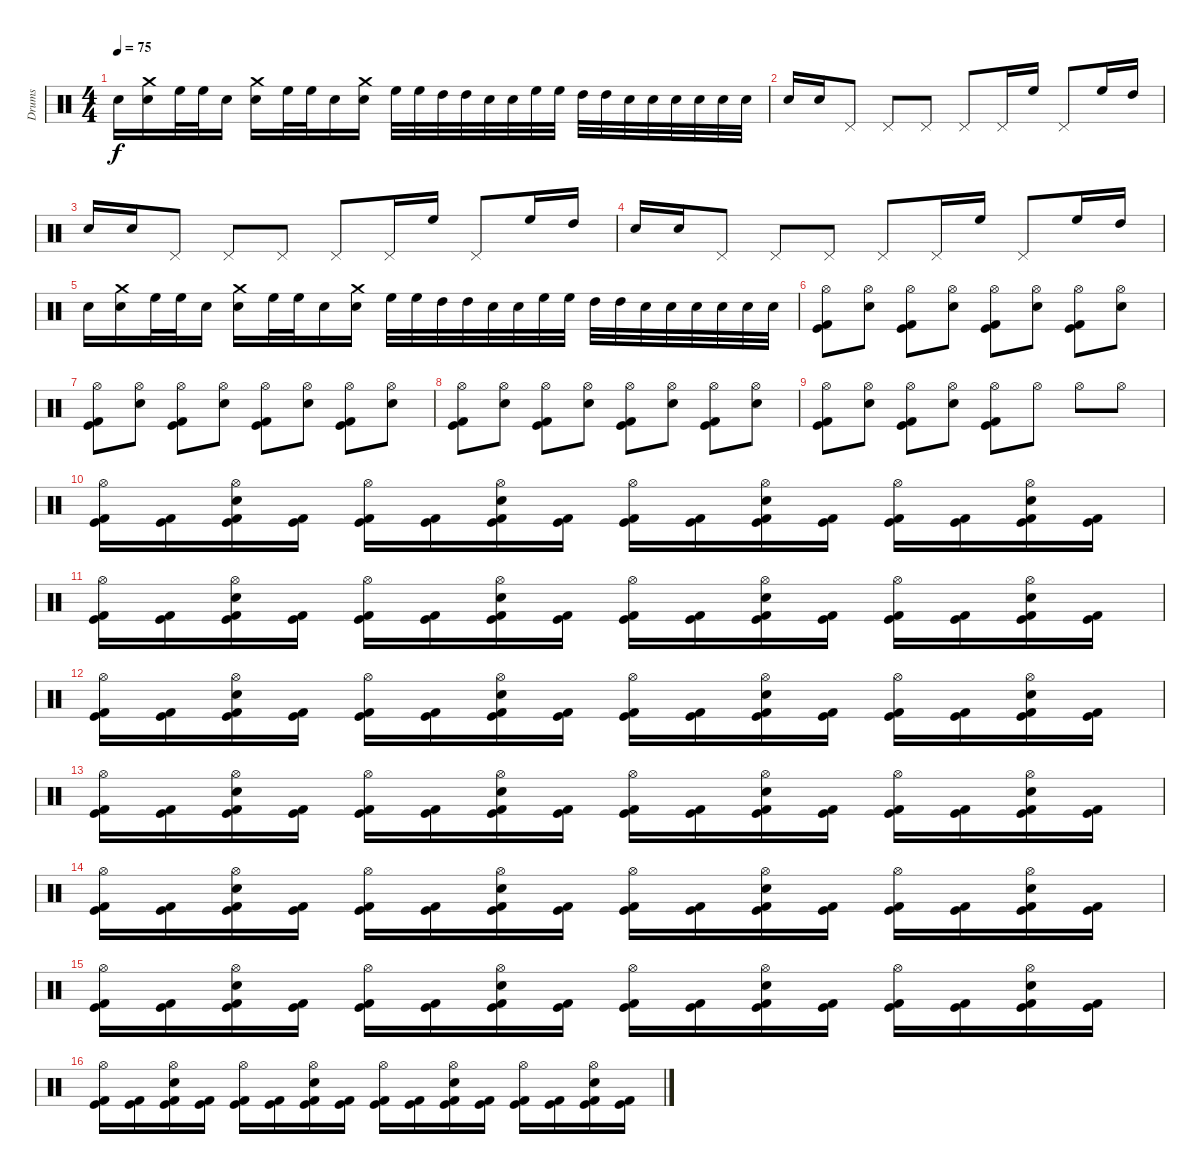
\track ("Drums" "Drums") {instrument percussion}
\staff {score}
\articulation defaults
\ts (4 4)
\tempo 75
\clef neutral
\ks c "Snare (hit) 2".16{dy f}
("Snare (hit) 2" "Crash medium (hit)").16 "High Floor Tom (hit)".32 "High Floor Tom (hit)".32 "Snare (hit) 2".16 ("Snare (hit) 2" "Crash medium (hit)").16 "High Floor Tom (hit)".32 "High Floor Tom (hit)".32 "Snare (hit) 2".16 ("Snare (hit) 2" "Crash medium (hit)").16 "High Floor Tom (hit)".32 "High Floor Tom (hit)".32 "High Tom (hit)".32 "High Tom (hit)".32 "Snare (hit) 2".32 "Snare (hit) 2".32 "High Floor Tom (hit)".32 "High Floor Tom (hit)".32 "High Tom (hit)".32 "High Tom (hit)".32 "Snare (hit) 2".32 "Snare (hit) 2".32 "Snare (hit) 2".32 "Snare (hit) 2".32 "Snare (hit) 2".32 "Snare (hit) 2".32 |
"Snare (hit) 2".16 "Snare (hit) 2".16 "Pedal Hi-Hat (hit)".8 "Pedal Hi-Hat (hit)".8 "Pedal Hi-Hat (hit)".8 "Pedal Hi-Hat (hit)".8 "Pedal Hi-Hat (hit)".16 "High Floor Tom (hit)".16 "Pedal Hi-Hat (hit)".8 "High Floor Tom (hit)".16 "High Tom (hit)".16 |
"Snare (hit) 2".16 "Snare (hit) 2".16 "Pedal Hi-Hat (hit)".8 "Pedal Hi-Hat (hit)".8 "Pedal Hi-Hat (hit)".8 "Pedal Hi-Hat (hit)".8 "Pedal Hi-Hat (hit)".16 "High Floor Tom (hit)".16 "Pedal Hi-Hat (hit)".8 "High Floor Tom (hit)".16 "High Tom (hit)".16 |
"Snare (hit) 2".16 "Snare (hit) 2".16 "Pedal Hi-Hat (hit)".8 "Pedal Hi-Hat (hit)".8 "Pedal Hi-Hat (hit)".8 "Pedal Hi-Hat (hit)".8 "Pedal Hi-Hat (hit)".16 "High Floor Tom (hit)".16 "Pedal Hi-Hat (hit)".8 "High Floor Tom (hit)".16 "High Tom (hit)".16 |
"Snare (hit) 2".16 ("Snare (hit) 2" "Crash medium (hit)").16 "High Floor Tom (hit)".32 "High Floor Tom (hit)".32 "Snare (hit) 2".16 ("Snare (hit) 2" "Crash medium (hit)").16 "High Floor Tom (hit)".32 "High Floor Tom (hit)".32 "Snare (hit) 2".16 ("Snare (hit) 2" "Crash medium (hit)").16 "High Floor Tom (hit)".32 "High Floor Tom (hit)".32 "High Tom (hit)".32 "High Tom (hit)".32 "Snare (hit) 2".32 "Snare (hit) 2".32 "High Floor Tom (hit)".32 "High Floor Tom (hit)".32 "High Tom (hit)".32 "High Tom (hit)".32 "Snare (hit) 2".32 "Snare (hit) 2".32 "Snare (hit) 2".32 "Snare (hit) 2".32 "Snare (hit) 2".32 "Snare (hit) 2".32 |
("Kick (hit) 2" "Kick (hit)" "Hi-Hat (open)").8 ("Hi-Hat (open)" "Electric Snare (hit)").8 ("Kick (hit) 2" "Kick (hit)" "Hi-Hat (open)").8 ("Hi-Hat (open)" "Electric Snare (hit)").8 ("Kick (hit) 2" "Kick (hit)" "Hi-Hat (open)").8 ("Hi-Hat (open)" "Electric Snare (hit)").8 ("Kick (hit) 2" "Kick (hit)" "Hi-Hat (open)").8 ("Hi-Hat (open)" "Electric Snare (hit)").8 |
("Kick (hit) 2" "Kick (hit)" "Hi-Hat (open)").8 ("Hi-Hat (open)" "Electric Snare (hit)").8 ("Kick (hit) 2" "Kick (hit)" "Hi-Hat (open)").8 ("Hi-Hat (open)" "Electric Snare (hit)").8 ("Kick (hit) 2" "Kick (hit)" "Hi-Hat (open)").8 ("Hi-Hat (open)" "Electric Snare (hit)").8 ("Kick (hit) 2" "Kick (hit)" "Hi-Hat (open)").8 ("Hi-Hat (open)" "Electric Snare (hit)").8 |
("Kick (hit) 2" "Kick (hit)" "Hi-Hat (open)").8 ("Hi-Hat (open)" "Electric Snare (hit)").8 ("Kick (hit) 2" "Kick (hit)" "Hi-Hat (open)").8 ("Hi-Hat (open)" "Electric Snare (hit)").8 ("Kick (hit) 2" "Kick (hit)" "Hi-Hat (open)").8 ("Hi-Hat (open)" "Electric Snare (hit)").8 ("Kick (hit) 2" "Kick (hit)" "Hi-Hat (open)").8 ("Hi-Hat (open)" "Electric Snare (hit)").8 |
("Kick (hit) 2" "Kick (hit)" "Hi-Hat (open)").8 ("Hi-Hat (open)" "Electric Snare (hit)").8 ("Kick (hit) 2" "Kick (hit)" "Hi-Hat (open)").8 ("Hi-Hat (open)" "Electric Snare (hit)").8 ("Kick (hit) 2" "Kick (hit)" "Hi-Hat (open)").8 "Hi-Hat (open)".8 "Hi-Hat (open)".8 "Hi-Hat (open)".8 |
("Kick (hit) 2" "Kick (hit)" "Hi-Hat (open)").16 ("Kick (hit) 2" "Kick (hit)").16 ("Kick (hit) 2" "Kick (hit)" "Electric Snare (hit)" "Hi-Hat (open)").16 ("Kick (hit) 2" "Kick (hit)").16 ("Kick (hit) 2" "Kick (hit)" "Hi-Hat (open)").16 ("Kick (hit) 2" "Kick (hit)").16 ("Kick (hit) 2" "Kick (hit)" "Electric Snare (hit)" "Hi-Hat (open)").16 ("Kick (hit) 2" "Kick (hit)").16 ("Kick (hit) 2" "Kick (hit)" "Hi-Hat (open)").16 ("Kick (hit) 2" "Kick (hit)").16 ("Kick (hit) 2" "Kick (hit)" "Electric Snare (hit)" "Hi-Hat (open)").16 ("Kick (hit) 2" "Kick (hit)").16 ("Kick (hit) 2" "Kick (hit)" "Hi-Hat (open)").16 ("Kick (hit) 2" "Kick (hit)").16 ("Kick (hit) 2" "Kick (hit)" "Electric Snare (hit)" "Hi-Hat (open)").16 ("Kick (hit) 2" "Kick (hit)").16 |
("Kick (hit) 2" "Kick (hit)" "Hi-Hat (open)").16 ("Kick (hit) 2" "Kick (hit)").16 ("Kick (hit) 2" "Kick (hit)" "Electric Snare (hit)" "Hi-Hat (open)").16 ("Kick (hit) 2" "Kick (hit)").16 ("Kick (hit) 2" "Kick (hit)" "Hi-Hat (open)").16 ("Kick (hit) 2" "Kick (hit)").16 ("Kick (hit) 2" "Kick (hit)" "Electric Snare (hit)" "Hi-Hat (open)").16 ("Kick (hit) 2" "Kick (hit)").16 ("Kick (hit) 2" "Kick (hit)" "Hi-Hat (open)").16 ("Kick (hit) 2" "Kick (hit)").16 ("Kick (hit) 2" "Kick (hit)" "Electric Snare (hit)" "Hi-Hat (open)").16 ("Kick (hit) 2" "Kick (hit)").16 ("Kick (hit) 2" "Kick (hit)" "Hi-Hat (open)").16 ("Kick (hit) 2" "Kick (hit)").16 ("Kick (hit) 2" "Kick (hit)" "Electric Snare (hit)" "Hi-Hat (open)").16 ("Kick (hit) 2" "Kick (hit)").16 |
("Kick (hit) 2" "Kick (hit)" "Hi-Hat (open)").16 ("Kick (hit) 2" "Kick (hit)").16 ("Kick (hit) 2" "Kick (hit)" "Electric Snare (hit)" "Hi-Hat (open)").16 ("Kick (hit) 2" "Kick (hit)").16 ("Kick (hit) 2" "Kick (hit)" "Hi-Hat (open)").16 ("Kick (hit) 2" "Kick (hit)").16 ("Kick (hit) 2" "Kick (hit)" "Electric Snare (hit)" "Hi-Hat (open)").16 ("Kick (hit) 2" "Kick (hit)").16 ("Kick (hit) 2" "Kick (hit)" "Hi-Hat (open)").16 ("Kick (hit) 2" "Kick (hit)").16 ("Kick (hit) 2" "Kick (hit)" "Electric Snare (hit)" "Hi-Hat (open)").16 ("Kick (hit) 2" "Kick (hit)").16 ("Kick (hit) 2" "Kick (hit)" "Hi-Hat (open)").16 ("Kick (hit) 2" "Kick (hit)").16 ("Kick (hit) 2" "Kick (hit)" "Electric Snare (hit)" "Hi-Hat (open)").16 ("Kick (hit) 2" "Kick (hit)").16 |
("Kick (hit) 2" "Kick (hit)" "Hi-Hat (open)").16 ("Kick (hit) 2" "Kick (hit)").16 ("Kick (hit) 2" "Kick (hit)" "Electric Snare (hit)" "Hi-Hat (open)").16 ("Kick (hit) 2" "Kick (hit)").16 ("Kick (hit) 2" "Kick (hit)" "Hi-Hat (open)").16 ("Kick (hit) 2" "Kick (hit)").16 ("Kick (hit) 2" "Kick (hit)" "Electric Snare (hit)" "Hi-Hat (open)").16 ("Kick (hit) 2" "Kick (hit)").16 ("Kick (hit) 2" "Kick (hit)" "Hi-Hat (open)").16 ("Kick (hit) 2" "Kick (hit)").16 ("Kick (hit) 2" "Kick (hit)" "Electric Snare (hit)" "Hi-Hat (open)").16 ("Kick (hit) 2" "Kick (hit)").16 ("Kick (hit) 2" "Kick (hit)" "Hi-Hat (open)").16 ("Kick (hit) 2" "Kick (hit)").16 ("Kick (hit) 2" "Kick (hit)" "Electric Snare (hit)" "Hi-Hat (open)").16 ("Kick (hit) 2" "Kick (hit)").16 |
("Kick (hit) 2" "Kick (hit)" "Hi-Hat (open)").16 ("Kick (hit) 2" "Kick (hit)").16 ("Kick (hit) 2" "Kick (hit)" "Electric Snare (hit)" "Hi-Hat (open)").16 ("Kick (hit) 2" "Kick (hit)").16 ("Kick (hit) 2" "Kick (hit)" "Hi-Hat (open)").16 ("Kick (hit) 2" "Kick (hit)").16 ("Kick (hit) 2" "Kick (hit)" "Electric Snare (hit)" "Hi-Hat (open)").16 ("Kick (hit) 2" "Kick (hit)").16 ("Kick (hit) 2" "Kick (hit)" "Hi-Hat (open)").16 ("Kick (hit) 2" "Kick (hit)").16 ("Kick (hit) 2" "Kick (hit)" "Electric Snare (hit)" "Hi-Hat (open)").16 ("Kick (hit) 2" "Kick (hit)").16 ("Kick (hit) 2" "Kick (hit)" "Hi-Hat (open)").16 ("Kick (hit) 2" "Kick (hit)").16 ("Kick (hit) 2" "Kick (hit)" "Electric Snare (hit)" "Hi-Hat (open)").16 ("Kick (hit) 2" "Kick (hit)").16 |
("Kick (hit) 2" "Kick (hit)" "Hi-Hat (open)").16 ("Kick (hit) 2" "Kick (hit)").16 ("Kick (hit) 2" "Kick (hit)" "Electric Snare (hit)" "Hi-Hat (open)").16 ("Kick (hit) 2" "Kick (hit)").16 ("Kick (hit) 2" "Kick (hit)" "Hi-Hat (open)").16 ("Kick (hit) 2" "Kick (hit)").16 ("Kick (hit) 2" "Kick (hit)" "Electric Snare (hit)" "Hi-Hat (open)").16 ("Kick (hit) 2" "Kick (hit)").16 ("Kick (hit) 2" "Kick (hit)" "Hi-Hat (open)").16 ("Kick (hit) 2" "Kick (hit)").16 ("Kick (hit) 2" "Kick (hit)" "Electric Snare (hit)" "Hi-Hat (open)").16 ("Kick (hit) 2" "Kick (hit)").16 ("Kick (hit) 2" "Kick (hit)" "Hi-Hat (open)").16 ("Kick (hit) 2" "Kick (hit)").16 ("Kick (hit) 2" "Kick (hit)" "Electric Snare (hit)" "Hi-Hat (open)").16 ("Kick (hit) 2" "Kick (hit)").16 |
("Kick (hit) 2" "Kick (hit)" "Hi-Hat (open)").16 ("Kick (hit) 2" "Kick (hit)").16 ("Kick (hit) 2" "Kick (hit)" "Electric Snare (hit)" "Hi-Hat (open)").16 ("Kick (hit) 2" "Kick (hit)").16 ("Kick (hit) 2" "Kick (hit)" "Hi-Hat (open)").16 ("Kick (hit) 2" "Kick (hit)").16 ("Kick (hit) 2" "Kick (hit)" "Electric Snare (hit)" "Hi-Hat (open)").16 ("Kick (hit) 2" "Kick (hit)").16 ("Kick (hit) 2" "Kick (hit)" "Hi-Hat (open)").16 ("Kick (hit) 2" "Kick (hit)").16 ("Kick (hit) 2" "Kick (hit)" "Electric Snare (hit)" "Hi-Hat (open)").16 ("Kick (hit) 2" "Kick (hit)").16 ("Kick (hit) 2" "Kick (hit)" "Hi-Hat (open)").16 ("Kick (hit) 2" "Kick (hit)").16 ("Kick (hit) 2" "Kick (hit)" "Electric Snare (hit)" "Hi-Hat (open)").16 ("Kick (hit) 2" "Kick (hit)").16
